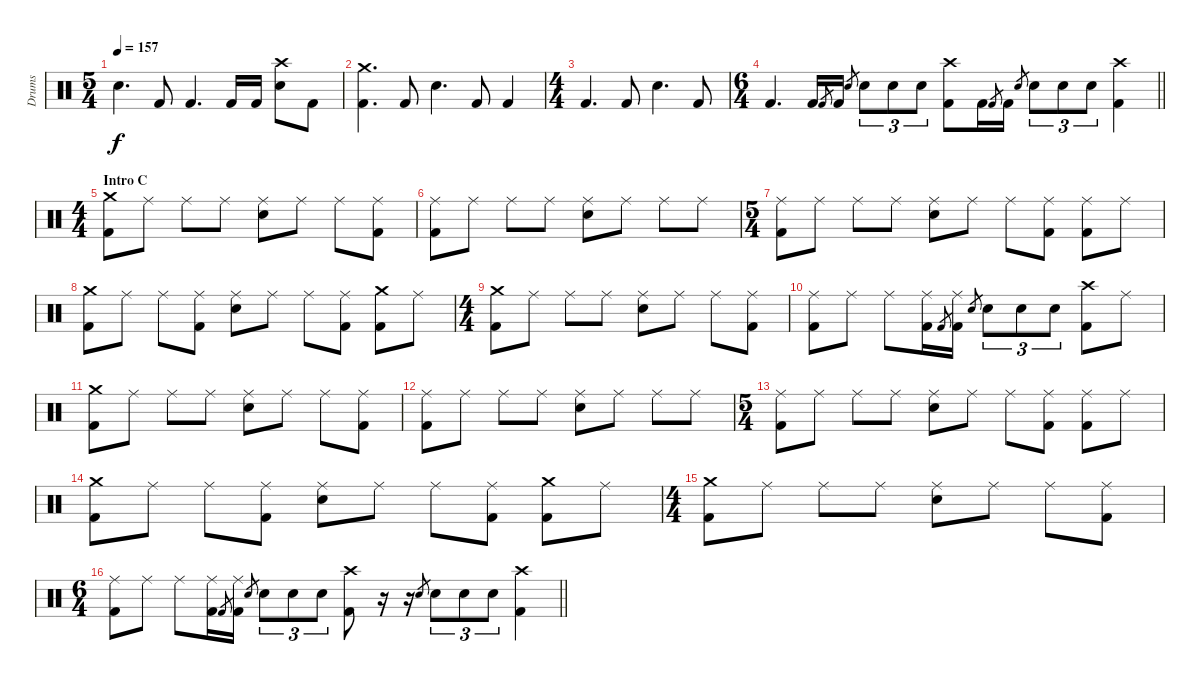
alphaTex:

\track ("Drums" "Drums") {instrument percussion}
\staff {score}
\articulation defaults
\ts (5 4)
\tempo 157
\clef neutral
\ks c "Electric Snare (hit)".4{d dy f} "Kick (hit) 2".8 "Kick (hit) 2".4{d} "Kick (hit) 2".16 "Kick (hit) 2".16
("Crash high (hit)" "Electric Snare (hit)").8 "Kick (hit) 2".8 |
("Crash medium (hit)" "Kick (hit) 2").4{d} "Kick (hit) 2".8 "Electric Snare (hit)".4{d} "Kick (hit) 2".8 "Kick (hit) 2".4 |
\ts (4 4)
"Kick (hit) 2".4{d} "Kick (hit) 2".8 "Electric Snare (hit)".4{d} "Kick (hit) 2".8 |
\ts (6 4)
\barLineRight lightlight "Kick (hit) 2".4{d} "Kick (hit) 2".16 "Kick (hit) 2".8{gr} "Kick (hit) 2".16 "Electric Snare (hit)".8{gr} "Electric Snare (hit)".8{tu (3 2)} "Electric Snare (hit)".8{tu (3 2)} "Electric Snare (hit)".8{tu (3 2)}
("Crash high (hit)" "Kick (hit) 2").8 "Kick (hit) 2".16 "Kick (hit) 2".8{gr} "Kick (hit) 2".16 "Electric Snare (hit)".8{gr} "Electric Snare (hit)".8{tu (3 2)} "Electric Snare (hit)".8{tu (3 2)} "Electric Snare (hit)".8{tu (3 2)} ("Crash high (hit)" "Kick (hit) 2").4 |
\ts (4 4)
\section ("" "Intro C")
("Crash medium (hit)" "Kick (hit) 2").8 "Ride (middle)".8 "Ride (middle)".8 "Ride (middle)".8 ("Ride (middle)" "Electric Snare (hit)").8 "Ride (middle)".8 "Ride (middle)".8 ("Ride (middle)" "Kick (hit) 2").8 |
("Ride (middle)" "Kick (hit) 2").8 "Ride (middle)".8 "Ride (middle)".8 "Ride (middle)".8 ("Ride (middle)" "Electric Snare (hit)").8 "Ride (middle)".8 "Ride (middle)".8 "Ride (middle)".8 |
\ts (5 4)
("Ride (middle)" "Kick (hit) 2").8 "Ride (middle)".8 "Ride (middle)".8 "Ride (middle)".8 ("Ride (middle)" "Electric Snare (hit)").8 "Ride (middle)".8 "Ride (middle)".8 ("Ride (middle)" "Kick (hit) 2").8 ("Ride (middle)" "Kick (hit) 2").8 "Ride (middle)".8 |
("Crash medium (hit)" "Kick (hit) 2").8 "Ride (middle)".8 "Ride (middle)".8 ("Ride (middle)" "Kick (hit) 2").8 ("Ride (middle)" "Electric Snare (hit)").8 "Ride (middle)".8 "Ride (middle)".8 ("Ride (middle)" "Kick (hit) 2").8 ("Crash medium (hit)" "Kick (hit) 2").8 "Ride (middle)".8 |
\ts (4 4)
("Crash medium (hit)" "Kick (hit) 2").8 "Ride (middle)".8 "Ride (middle)".8 "Ride (middle)".8 ("Ride (middle)" "Electric Snare (hit)").8 "Ride (middle)".8 "Ride (middle)".8 ("Ride (middle)" "Kick (hit) 2").8 |
("Ride (middle)" "Kick (hit) 2").8 "Ride (middle)".8 "Ride (middle)".8 ("Ride (middle)" "Kick (hit) 2").16 "Kick (hit) 2".8{gr} ("Ride (middle)" "Kick (hit) 2").16 "Electric Snare (hit)".8{gr} "Electric Snare (hit)".8{tu (3 2)} "Electric Snare (hit)".8{tu (3 2)} "Electric Snare (hit)".8{tu (3 2)} ("Crash high (hit)" "Kick (hit) 2").8 "Ride (middle)".8 |
("Crash medium (hit)" "Kick (hit) 2").8 "Ride (middle)".8 "Ride (middle)".8 "Ride (middle)".8 ("Ride (middle)" "Electric Snare (hit)").8 "Ride (middle)".8 "Ride (middle)".8 ("Ride (middle)" "Kick (hit) 2").8 |
("Ride (middle)" "Kick (hit) 2").8 "Ride (middle)".8 "Ride (middle)".8 "Ride (middle)".8 ("Ride (middle)" "Electric Snare (hit)").8 "Ride (middle)".8 "Ride (middle)".8 "Ride (middle)".8 |
\ts (5 4)
("Ride (middle)" "Kick (hit) 2").8 "Ride (middle)".8 "Ride (middle)".8 "Ride (middle)".8 ("Ride (middle)" "Electric Snare (hit)").8 "Ride (middle)".8 "Ride (middle)".8 ("Ride (middle)" "Kick (hit) 2").8 ("Ride (middle)" "Kick (hit) 2").8 "Ride (middle)".8 |
("Crash medium (hit)" "Kick (hit) 2").8 "Ride (middle)".8 "Ride (middle)".8 ("Ride (middle)" "Kick (hit) 2").8 ("Ride (middle)" "Electric Snare (hit)").8 "Ride (middle)".8 "Ride (middle)".8 ("Ride (middle)" "Kick (hit) 2").8 ("Crash medium (hit)" "Kick (hit) 2").8 "Ride (middle)".8 |
\ts (4 4)
("Crash medium (hit)" "Kick (hit) 2").8 "Ride (middle)".8 "Ride (middle)".8 "Ride (middle)".8 ("Ride (middle)" "Electric Snare (hit)").8 "Ride (middle)".8 "Ride (middle)".8 ("Ride (middle)" "Kick (hit) 2").8 |
\ts (6 4)
\barLineRight lightlight
("Ride (middle)" "Kick (hit) 2").8 "Ride (middle)".8 "Ride (middle)".8 ("Ride (middle)" "Kick (hit) 2").16 "Kick (hit) 2".8{gr} ("Ride (middle)" "Kick (hit) 2").16 "Electric Snare (hit)".8{gr} "Electric Snare (hit)".8{tu (3 2)} "Electric Snare (hit)".8{tu (3 2)} "Electric Snare (hit)".8{tu (3 2)} ("Crash high (hit)" "Kick (hit) 2").8 r.16 r.16 "Electric Snare (hit)".8{gr} "Electric Snare (hit)".8{tu (3 2)} "Electric Snare (hit)".8{tu (3 2)} "Electric Snare (hit)".8{tu (3 2)} ("Crash high (hit)" "Kick (hit) 2").4
